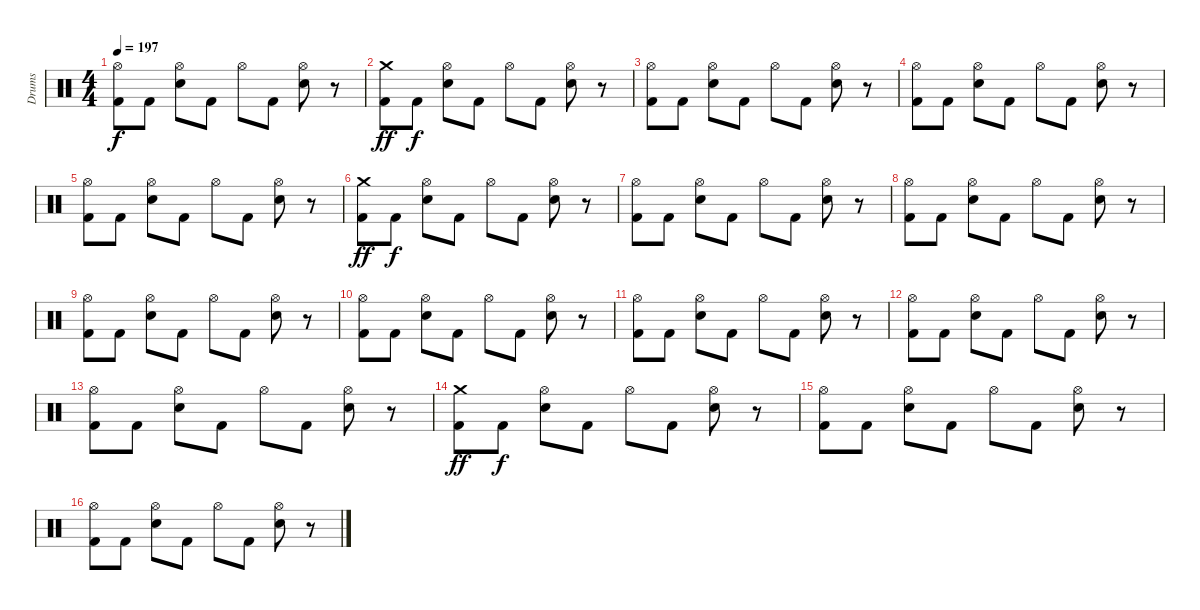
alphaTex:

\track ("Drums" "Drums") {instrument percussion}
\staff {score}
\articulation defaults
\ts (4 4)
\tempo 197
\clef neutral
\ks c
("Hi-Hat (open)" "Kick (hit) 2").8{dy f} "Kick (hit) 2".8 ("Hi-Hat (open)" "Snare (hit) 2").8 "Kick (hit) 2".8 "Hi-Hat (open)".8 "Kick (hit) 2".8 ("Hi-Hat (open)" "Snare (hit) 2").8 r.8 |
("Crash medium (hit)" "Kick (hit) 2").8{dy ff} "Kick (hit) 2".8{dy f} ("Hi-Hat (open)" "Snare (hit) 2").8 "Kick (hit) 2".8 "Hi-Hat (open)".8 "Kick (hit) 2".8 ("Hi-Hat (open)" "Snare (hit) 2").8 r.8 |
("Hi-Hat (open)" "Kick (hit) 2").8 "Kick (hit) 2".8 ("Hi-Hat (open)" "Snare (hit) 2").8 "Kick (hit) 2".8 "Hi-Hat (open)".8 "Kick (hit) 2".8 ("Hi-Hat (open)" "Snare (hit) 2").8 r.8 |
("Hi-Hat (open)" "Kick (hit) 2").8 "Kick (hit) 2".8 ("Hi-Hat (open)" "Snare (hit) 2").8 "Kick (hit) 2".8 "Hi-Hat (open)".8 "Kick (hit) 2".8 ("Hi-Hat (open)" "Snare (hit) 2").8 r.8 |
("Hi-Hat (open)" "Kick (hit) 2").8 "Kick (hit) 2".8 ("Hi-Hat (open)" "Snare (hit) 2").8 "Kick (hit) 2".8 "Hi-Hat (open)".8 "Kick (hit) 2".8 ("Hi-Hat (open)" "Snare (hit) 2").8 r.8 |
("Crash medium (hit)" "Kick (hit) 2").8{dy ff} "Kick (hit) 2".8{dy f} ("Hi-Hat (open)" "Snare (hit) 2").8 "Kick (hit) 2".8 "Hi-Hat (open)".8 "Kick (hit) 2".8 ("Hi-Hat (open)" "Snare (hit) 2").8 r.8 |
("Hi-Hat (open)" "Kick (hit) 2").8 "Kick (hit) 2".8 ("Hi-Hat (open)" "Snare (hit) 2").8 "Kick (hit) 2".8 "Hi-Hat (open)".8 "Kick (hit) 2".8 ("Hi-Hat (open)" "Snare (hit) 2").8 r.8 |
("Hi-Hat (open)" "Kick (hit) 2").8 "Kick (hit) 2".8 ("Hi-Hat (open)" "Snare (hit) 2").8 "Kick (hit) 2".8 "Hi-Hat (open)".8 "Kick (hit) 2".8 ("Hi-Hat (open)" "Snare (hit) 2").8 r.8 |
("Hi-Hat (open)" "Kick (hit) 2").8 "Kick (hit) 2".8 ("Hi-Hat (open)" "Snare (hit) 2").8 "Kick (hit) 2".8 "Hi-Hat (open)".8 "Kick (hit) 2".8 ("Hi-Hat (open)" "Snare (hit) 2").8 r.8 |
("Hi-Hat (open)" "Kick (hit) 2").8 "Kick (hit) 2".8 ("Hi-Hat (open)" "Snare (hit) 2").8 "Kick (hit) 2".8 "Hi-Hat (open)".8 "Kick (hit) 2".8 ("Hi-Hat (open)" "Snare (hit) 2").8 r.8 |
("Hi-Hat (open)" "Kick (hit) 2").8 "Kick (hit) 2".8 ("Hi-Hat (open)" "Snare (hit) 2").8 "Kick (hit) 2".8 "Hi-Hat (open)".8 "Kick (hit) 2".8 ("Hi-Hat (open)" "Snare (hit) 2").8 r.8 |
("Hi-Hat (open)" "Kick (hit) 2").8 "Kick (hit) 2".8 ("Hi-Hat (open)" "Snare (hit) 2").8 "Kick (hit) 2".8 "Hi-Hat (open)".8 "Kick (hit) 2".8 ("Hi-Hat (open)" "Snare (hit) 2").8 r.8 |
("Hi-Hat (open)" "Kick (hit) 2").8 "Kick (hit) 2".8 ("Hi-Hat (open)" "Snare (hit) 2").8 "Kick (hit) 2".8 "Hi-Hat (open)".8 "Kick (hit) 2".8 ("Hi-Hat (open)" "Snare (hit) 2").8 r.8 |
("Crash medium (hit)" "Kick (hit) 2").8{dy ff} "Kick (hit) 2".8{dy f} ("Hi-Hat (open)" "Snare (hit) 2").8 "Kick (hit) 2".8 "Hi-Hat (open)".8 "Kick (hit) 2".8 ("Hi-Hat (open)" "Snare (hit) 2").8 r.8 |
("Hi-Hat (open)" "Kick (hit) 2").8 "Kick (hit) 2".8 ("Hi-Hat (open)" "Snare (hit) 2").8 "Kick (hit) 2".8 "Hi-Hat (open)".8 "Kick (hit) 2".8 ("Hi-Hat (open)" "Snare (hit) 2").8 r.8 |
("Hi-Hat (open)" "Kick (hit) 2").8 "Kick (hit) 2".8 ("Hi-Hat (open)" "Snare (hit) 2").8 "Kick (hit) 2".8 "Hi-Hat (open)".8 "Kick (hit) 2".8 ("Hi-Hat (open)" "Snare (hit) 2").8 r.8
